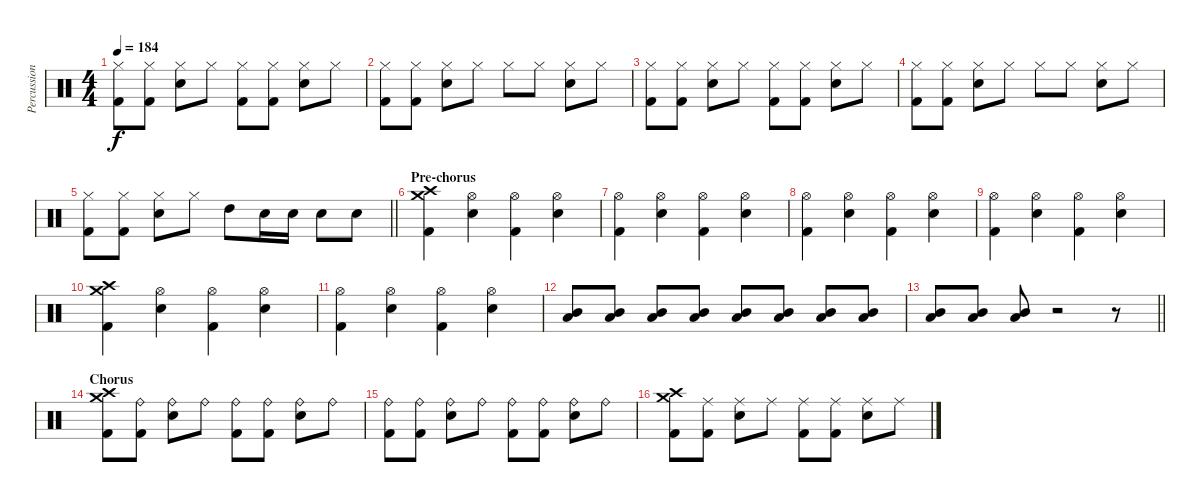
\track ("Percussion" "Percussion") {instrument percussion}
\staff {score}
\articulation defaults
\ts (4 4)
\tempo 184
\clef neutral
\ks c
("Hi-Hat (closed)" "Kick (hit) 2").8{dy f} ("Hi-Hat (closed)" "Kick (hit) 2").8 ("Hi-Hat (closed)" "Electric Snare (hit)").8 "Hi-Hat (closed)".8 ("Hi-Hat (closed)" "Kick (hit) 2").8 ("Hi-Hat (closed)" "Kick (hit) 2").8 ("Hi-Hat (closed)" "Electric Snare (hit)").8 "Hi-Hat (closed)".8 |
("Hi-Hat (closed)" "Kick (hit) 2").8 ("Hi-Hat (closed)" "Kick (hit) 2").8 ("Hi-Hat (closed)" "Electric Snare (hit)").8 "Hi-Hat (closed)".8 "Hi-Hat (closed)".8 "Hi-Hat (closed)".8 ("Hi-Hat (closed)" "Electric Snare (hit)").8 "Hi-Hat (closed)".8 |
("Hi-Hat (closed)" "Kick (hit) 2").8 ("Hi-Hat (closed)" "Kick (hit) 2").8 ("Hi-Hat (closed)" "Electric Snare (hit)").8 "Hi-Hat (closed)".8 ("Hi-Hat (closed)" "Kick (hit) 2").8 ("Hi-Hat (closed)" "Kick (hit) 2").8 ("Hi-Hat (closed)" "Electric Snare (hit)").8 "Hi-Hat (closed)".8 |
("Hi-Hat (closed)" "Kick (hit) 2").8 ("Hi-Hat (closed)" "Kick (hit) 2").8 ("Hi-Hat (closed)" "Electric Snare (hit)").8 "Hi-Hat (closed)".8 "Hi-Hat (closed)".8 "Hi-Hat (closed)".8 ("Hi-Hat (closed)" "Electric Snare (hit)").8 "Hi-Hat (closed)".8 |
\barLineRight lightlight
("Hi-Hat (closed)" "Kick (hit) 2").8 ("Hi-Hat (closed)" "Kick (hit) 2").8 ("Hi-Hat (closed)" "Electric Snare (hit)").8 "Hi-Hat (closed)".8 "High Tom (hit)".8 "Electric Snare (hit)".16 "Electric Snare (hit)".16 "Electric Snare (hit)".8 "Electric Snare (hit)".8 |
\section ("" "Pre-chorus")
("Crash high (hit)" "Crash medium (hit)" "Kick (hit) 2").4 ("Hi-Hat (open)" "Electric Snare (hit)").4 ("Hi-Hat (open)" "Kick (hit) 2").4 ("Hi-Hat (open)" "Electric Snare (hit)").4 |
("Hi-Hat (open)" "Kick (hit) 2").4 ("Hi-Hat (open)" "Electric Snare (hit)").4 ("Hi-Hat (open)" "Kick (hit) 2").4 ("Hi-Hat (open)" "Electric Snare (hit)").4 |
("Hi-Hat (open)" "Kick (hit) 2").4 ("Hi-Hat (open)" "Electric Snare (hit)").4 ("Hi-Hat (open)" "Kick (hit) 2").4 ("Hi-Hat (open)" "Electric Snare (hit)").4 |
("Hi-Hat (open)" "Kick (hit) 2").4 ("Hi-Hat (open)" "Electric Snare (hit)").4 ("Hi-Hat (open)" "Kick (hit) 2").4 ("Hi-Hat (open)" "Electric Snare (hit)").4 |
("Crash high (hit)" "Crash medium (hit)" "Kick (hit) 2").4 ("Hi-Hat (open)" "Electric Snare (hit)").4 ("Hi-Hat (open)" "Kick (hit) 2").4 ("Hi-Hat (open)" "Electric Snare (hit)").4 |
("Hi-Hat (open)" "Kick (hit) 2").4 ("Hi-Hat (open)" "Electric Snare (hit)").4 ("Hi-Hat (open)" "Kick (hit) 2").4 ("Hi-Hat (open)" "Electric Snare (hit)").4 |
("Mid Tom (hit)" "Low Floor Tom (hit)").8 ("Mid Tom (hit)" "Low Floor Tom (hit)").8 ("Mid Tom (hit)" "Low Floor Tom (hit)").8 ("Mid Tom (hit)" "Low Floor Tom (hit)").8 ("Mid Tom (hit)" "Low Floor Tom (hit)").8 ("Mid Tom (hit)" "Low Floor Tom (hit)").8 ("Mid Tom (hit)" "Low Floor Tom (hit)").8 ("Mid Tom (hit)" "Low Floor Tom (hit)").8 |
\barLineRight lightlight
("Mid Tom (hit)" "Low Floor Tom (hit)").8 ("Mid Tom (hit)" "Low Floor Tom (hit)").8 ("Mid Tom (hit)" "Low Floor Tom (hit)").8 r.2 r.8 |
\section ("" "Chorus")
("Crash medium (hit)" "Crash high (hit)" "Kick (hit) 2").8 ("Ride (bell)" "Kick (hit) 2").8 ("Ride (bell)" "Electric Snare (hit)").8 "Ride (bell)".8 ("Ride (bell)" "Kick (hit) 2").8 ("Ride (bell)" "Kick (hit) 2").8 ("Ride (bell)" "Electric Snare (hit)").8 "Ride (bell)".8 |
("Ride (bell)" "Kick (hit) 2").8 ("Ride (bell)" "Kick (hit) 2").8 ("Ride (bell)" "Electric Snare (hit)").8 "Ride (bell)".8 ("Ride (bell)" "Kick (hit) 2").8 ("Ride (bell)" "Kick (hit) 2").8 ("Ride (bell)" "Electric Snare (hit)").8 "Ride (bell)".8 |
("Crash medium (hit)" "Crash high (hit)" "Kick (hit) 2").8 ("Ride (middle)" "Kick (hit) 2").8 ("Ride (middle)" "Electric Snare (hit)").8 "Ride (middle)".8 ("Ride (middle)" "Kick (hit) 2").8 ("Ride (middle)" "Kick (hit) 2").8 ("Ride (middle)" "Electric Snare (hit)").8 "Ride (middle)".8
